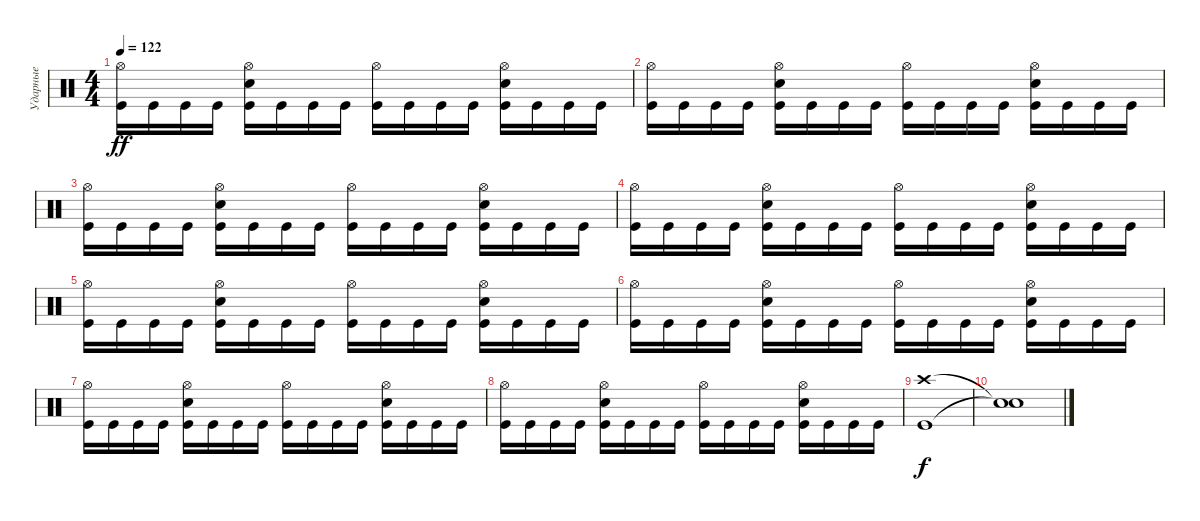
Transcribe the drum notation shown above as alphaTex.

\track ("Ударные" "Ударные") {instrument percussion}
\staff {score}
\articulation defaults
\ts (4 4)
\tempo 122
\clef neutral
\ks c
("Hi-Hat (open)" "Kick (hit)").16{dy ff} "Kick (hit)".16 "Kick (hit)".16 "Kick (hit)".16 ("Hi-Hat (open)" "Electric Snare (hit)" "Kick (hit)").16 "Kick (hit)".16 "Kick (hit)".16 "Kick (hit)".16 ("Hi-Hat (open)" "Kick (hit)").16 "Kick (hit)".16 "Kick (hit)".16 "Kick (hit)".16 ("Hi-Hat (open)" "Electric Snare (hit)" "Kick (hit)").16 "Kick (hit)".16 "Kick (hit)".16 "Kick (hit)".16 |
("Hi-Hat (open)" "Kick (hit)").16 "Kick (hit)".16 "Kick (hit)".16 "Kick (hit)".16 ("Hi-Hat (open)" "Electric Snare (hit)" "Kick (hit)").16 "Kick (hit)".16 "Kick (hit)".16 "Kick (hit)".16 ("Hi-Hat (open)" "Kick (hit)").16 "Kick (hit)".16 "Kick (hit)".16 "Kick (hit)".16 ("Hi-Hat (open)" "Electric Snare (hit)" "Kick (hit)").16 "Kick (hit)".16 "Kick (hit)".16 "Kick (hit)".16 |
("Hi-Hat (open)" "Kick (hit)").16 "Kick (hit)".16 "Kick (hit)".16 "Kick (hit)".16 ("Hi-Hat (open)" "Electric Snare (hit)" "Kick (hit)").16 "Kick (hit)".16 "Kick (hit)".16 "Kick (hit)".16 ("Hi-Hat (open)" "Kick (hit)").16 "Kick (hit)".16 "Kick (hit)".16 "Kick (hit)".16 ("Hi-Hat (open)" "Electric Snare (hit)" "Kick (hit)").16 "Kick (hit)".16 "Kick (hit)".16 "Kick (hit)".16 |
("Hi-Hat (open)" "Kick (hit)").16 "Kick (hit)".16 "Kick (hit)".16 "Kick (hit)".16 ("Hi-Hat (open)" "Electric Snare (hit)" "Kick (hit)").16 "Kick (hit)".16 "Kick (hit)".16 "Kick (hit)".16 ("Hi-Hat (open)" "Kick (hit)").16 "Kick (hit)".16 "Kick (hit)".16 "Kick (hit)".16 ("Hi-Hat (open)" "Electric Snare (hit)" "Kick (hit)").16 "Kick (hit)".16 "Kick (hit)".16 "Kick (hit)".16 |
("Hi-Hat (open)" "Kick (hit)").16 "Kick (hit)".16 "Kick (hit)".16 "Kick (hit)".16 ("Hi-Hat (open)" "Electric Snare (hit)" "Kick (hit)").16 "Kick (hit)".16 "Kick (hit)".16 "Kick (hit)".16 ("Hi-Hat (open)" "Kick (hit)").16 "Kick (hit)".16 "Kick (hit)".16 "Kick (hit)".16 ("Hi-Hat (open)" "Electric Snare (hit)" "Kick (hit)").16 "Kick (hit)".16 "Kick (hit)".16 "Kick (hit)".16 |
("Hi-Hat (open)" "Kick (hit)").16 "Kick (hit)".16 "Kick (hit)".16 "Kick (hit)".16 ("Hi-Hat (open)" "Electric Snare (hit)" "Kick (hit)").16 "Kick (hit)".16 "Kick (hit)".16 "Kick (hit)".16 ("Hi-Hat (open)" "Kick (hit)").16 "Kick (hit)".16 "Kick (hit)".16 "Kick (hit)".16 ("Hi-Hat (open)" "Electric Snare (hit)" "Kick (hit)").16 "Kick (hit)".16 "Kick (hit)".16 "Kick (hit)".16 |
("Hi-Hat (open)" "Kick (hit)").16 "Kick (hit)".16 "Kick (hit)".16 "Kick (hit)".16 ("Hi-Hat (open)" "Electric Snare (hit)" "Kick (hit)").16 "Kick (hit)".16 "Kick (hit)".16 "Kick (hit)".16 ("Hi-Hat (open)" "Kick (hit)").16 "Kick (hit)".16 "Kick (hit)".16 "Kick (hit)".16 ("Hi-Hat (open)" "Electric Snare (hit)" "Kick (hit)").16 "Kick (hit)".16 "Kick (hit)".16 "Kick (hit)".16 |
("Hi-Hat (open)" "Kick (hit)").16 "Kick (hit)".16 "Kick (hit)".16 "Kick (hit)".16 ("Hi-Hat (open)" "Electric Snare (hit)" "Kick (hit)").16 "Kick (hit)".16 "Kick (hit)".16 "Kick (hit)".16 ("Hi-Hat (open)" "Kick (hit)").16 "Kick (hit)".16 "Kick (hit)".16 "Kick (hit)".16 ("Hi-Hat (open)" "Electric Snare (hit)" "Kick (hit)").16 "Kick (hit)".16 "Kick (hit)".16 "Kick (hit)".16 |
("Crash high (hit)" "Kick (hit)").1{dy f} |
("Snare (hit)"{t} "Snare (hit)"{t}).1
